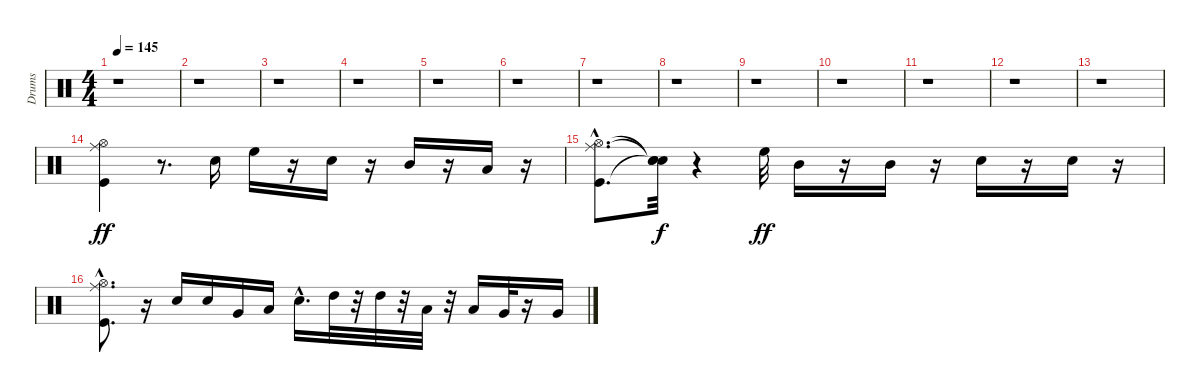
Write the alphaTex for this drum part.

\track ("Drums" "Drums") {instrument percussion}
\staff {score}
\articulation defaults
\ts (4 4)
\tempo 145
\clef neutral
\ks c
r.1{dy ff} |
r.1 |
r.1 |
r.1 |
r.1 |
r.1 |
r.1 |
r.1 |
r.1 |
r.1 |
r.1 |
r.1 |
r.1 |
("Ride (middle)" "Kick (hit)" "Hi-Hat (open)").4 r.8{d} "Snare (hit) 2".16 "High Floor Tom (hit)".16 r.16 "Electric Snare (hit)".16 r.16 "Mid Tom (hit)".16 r.16 "Low Tom (hit)".16 r.16 |
("Ride (middle)"{hac} "Hi-Hat (open)"{hac} "Kick (hit)"{hac}).8{d} ("Snare (hit)"{t} "Snare (hit)"{t} "Snare (hit)"{t}).32{dy f} r.4 "High Floor Tom (hit)".32{dy ff} "Mid Tom (hit)".16 r.16 "Mid Tom (hit)".16 r.16 "Electric Snare (hit)".16 r.16 "Snare (hit) 2".16 r.16 |
("Ride (middle)"{hac} "Hi-Hat (open)"{hac} "Kick (hit)"{hac}).8{d} r.16 "Snare (hit) 2".16 "Electric Snare (hit)".16 "Very Low Tom (hit)".16 "Low Tom (hit)".16 "Electric Snare (hit)"{hac}.16{d} "High Tom (hit)".32 r.32 "High Tom (hit)".32 r.32 "Low Tom (hit)".32 r.32 "Low Tom (hit)".16 "Very Low Tom (hit)".32 r.16 "Very Low Tom (hit)".16
